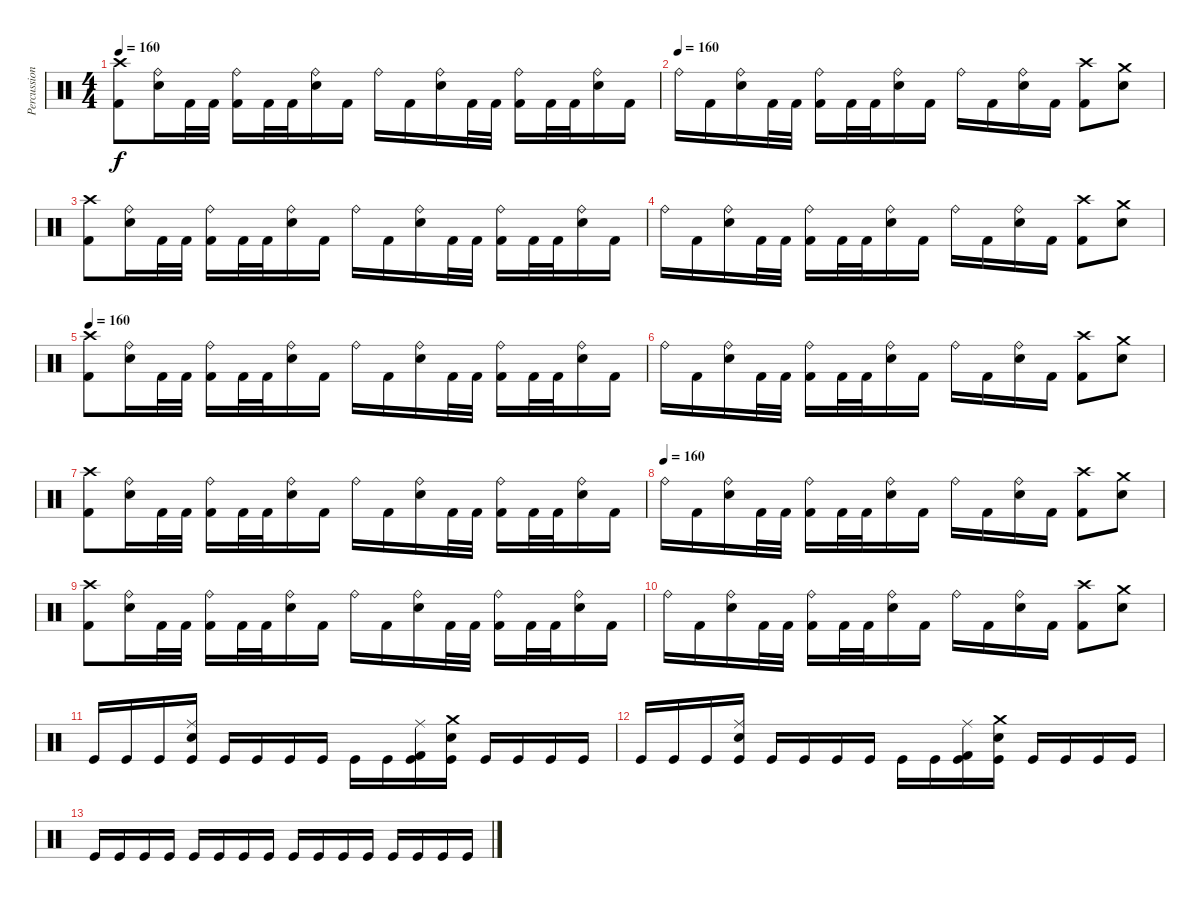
\track ("Percussions" "Percussion") {instrument percussion}
\staff {score}
\articulation defaults
\ts (4 4)
\tempo 160
\clef neutral
\ks c
("Crash high (hit)" "Kick (hit) 2").8{dy f} ("Ride (bell)" "Snare (hit) 2").16 "Kick (hit) 2".32 "Kick (hit) 2".32 ("Ride (bell)" "Kick (hit) 2").16 "Kick (hit) 2".32 "Kick (hit) 2".32 ("Ride (bell)" "Snare (hit) 2").16 "Kick (hit) 2".16 "Ride (bell)".16 "Kick (hit) 2".16 ("Ride (bell)" "Snare (hit) 2").16 "Kick (hit) 2".32 "Kick (hit) 2".32 ("Ride (bell)" "Kick (hit) 2").16 "Kick (hit) 2".32 "Kick (hit) 2".32 ("Ride (bell)" "Snare (hit) 2").16 "Kick (hit) 2".16 |
\tempo (160)
"Ride (bell)".16 "Kick (hit) 2".16 ("Ride (bell)" "Snare (hit) 2").16 "Kick (hit) 2".32 "Kick (hit) 2".32 ("Ride (bell)" "Kick (hit) 2").16 "Kick (hit) 2".32 "Kick (hit) 2".32 ("Ride (bell)" "Snare (hit) 2").16 "Kick (hit) 2".16 "Ride (bell)".16 "Kick (hit) 2".16 ("Ride (bell)" "Snare (hit) 2").16 "Kick (hit) 2".16 ("Crash high (hit)" "Kick (hit) 2").8 ("Crash medium (hit)" "Snare (hit) 2").8 |
("Crash high (hit)" "Kick (hit) 2").8 ("Ride (bell)" "Snare (hit) 2").16 "Kick (hit) 2".32 "Kick (hit) 2".32 ("Ride (bell)" "Kick (hit) 2").16 "Kick (hit) 2".32 "Kick (hit) 2".32 ("Ride (bell)" "Snare (hit) 2").16 "Kick (hit) 2".16 "Ride (bell)".16 "Kick (hit) 2".16 ("Ride (bell)" "Snare (hit) 2").16 "Kick (hit) 2".32 "Kick (hit) 2".32 ("Ride (bell)" "Kick (hit) 2").16 "Kick (hit) 2".32 "Kick (hit) 2".32 ("Ride (bell)" "Snare (hit) 2").16 "Kick (hit) 2".16 |
"Ride (bell)".16 "Kick (hit) 2".16 ("Ride (bell)" "Snare (hit) 2").16 "Kick (hit) 2".32 "Kick (hit) 2".32 ("Ride (bell)" "Kick (hit) 2").16 "Kick (hit) 2".32 "Kick (hit) 2".32 ("Ride (bell)" "Snare (hit) 2").16 "Kick (hit) 2".16 "Ride (bell)".16 "Kick (hit) 2".16 ("Ride (bell)" "Snare (hit) 2").16 "Kick (hit) 2".16 ("Crash high (hit)" "Kick (hit) 2").8 ("Crash medium (hit)" "Snare (hit) 2").8 |
\tempo 160
("Crash high (hit)" "Kick (hit) 2").8 ("Ride (bell)" "Snare (hit) 2").16 "Kick (hit) 2".32 "Kick (hit) 2".32 ("Ride (bell)" "Kick (hit) 2").16 "Kick (hit) 2".32 "Kick (hit) 2".32 ("Ride (bell)" "Snare (hit) 2").16 "Kick (hit) 2".16 "Ride (bell)".16 "Kick (hit) 2".16 ("Ride (bell)" "Snare (hit) 2").16 "Kick (hit) 2".32 "Kick (hit) 2".32 ("Ride (bell)" "Kick (hit) 2").16 "Kick (hit) 2".32 "Kick (hit) 2".32 ("Ride (bell)" "Snare (hit) 2").16 "Kick (hit) 2".16 |
"Ride (bell)".16 "Kick (hit) 2".16 ("Ride (bell)" "Snare (hit) 2").16 "Kick (hit) 2".32 "Kick (hit) 2".32 ("Ride (bell)" "Kick (hit) 2").16 "Kick (hit) 2".32 "Kick (hit) 2".32 ("Ride (bell)" "Snare (hit) 2").16 "Kick (hit) 2".16 "Ride (bell)".16 "Kick (hit) 2".16 ("Ride (bell)" "Snare (hit) 2").16 "Kick (hit) 2".16 ("Crash high (hit)" "Kick (hit) 2").8 ("Crash medium (hit)" "Snare (hit) 2").8 |
("Crash high (hit)" "Kick (hit) 2").8 ("Ride (bell)" "Snare (hit) 2").16 "Kick (hit) 2".32 "Kick (hit) 2".32 ("Ride (bell)" "Kick (hit) 2").16 "Kick (hit) 2".32 "Kick (hit) 2".32 ("Ride (bell)" "Snare (hit) 2").16 "Kick (hit) 2".16 "Ride (bell)".16 "Kick (hit) 2".16 ("Ride (bell)" "Snare (hit) 2").16 "Kick (hit) 2".32 "Kick (hit) 2".32 ("Ride (bell)" "Kick (hit) 2").16 "Kick (hit) 2".32 "Kick (hit) 2".32 ("Ride (bell)" "Snare (hit) 2").16 "Kick (hit) 2".16 |
\tempo (160)
"Ride (bell)".16 "Kick (hit) 2".16 ("Ride (bell)" "Snare (hit) 2").16 "Kick (hit) 2".32 "Kick (hit) 2".32 ("Ride (bell)" "Kick (hit) 2").16 "Kick (hit) 2".32 "Kick (hit) 2".32 ("Ride (bell)" "Snare (hit) 2").16 "Kick (hit) 2".16 "Ride (bell)".16 "Kick (hit) 2".16 ("Ride (bell)" "Snare (hit) 2").16 "Kick (hit) 2".16 ("Crash high (hit)" "Kick (hit) 2").8 ("Crash medium (hit)" "Snare (hit) 2").8 |
("Crash high (hit)" "Kick (hit) 2").8 ("Ride (bell)" "Snare (hit) 2").16 "Kick (hit) 2".32 "Kick (hit) 2".32 ("Ride (bell)" "Kick (hit) 2").16 "Kick (hit) 2".32 "Kick (hit) 2".32 ("Ride (bell)" "Snare (hit) 2").16 "Kick (hit) 2".16 "Ride (bell)".16 "Kick (hit) 2".16 ("Ride (bell)" "Snare (hit) 2").16 "Kick (hit) 2".32 "Kick (hit) 2".32 ("Ride (bell)" "Kick (hit) 2").16 "Kick (hit) 2".32 "Kick (hit) 2".32 ("Ride (bell)" "Snare (hit) 2").16 "Kick (hit) 2".16 |
"Ride (bell)".16 "Kick (hit) 2".16 ("Ride (bell)" "Snare (hit) 2").16 "Kick (hit) 2".32 "Kick (hit) 2".32 ("Ride (bell)" "Kick (hit) 2").16 "Kick (hit) 2".32 "Kick (hit) 2".32 ("Ride (bell)" "Snare (hit) 2").16 "Kick (hit) 2".16 "Ride (bell)".16 "Kick (hit) 2".16 ("Ride (bell)" "Snare (hit) 2").16 "Kick (hit) 2".16 ("Crash high (hit)" "Kick (hit) 2").8 ("Crash medium (hit)" "Snare (hit) 2").8 |
"Kick (hit)".16 "Kick (hit)".16 "Kick (hit)".16 ("Ride (middle)" "Electric Snare (hit)" "Kick (hit)").16 "Kick (hit)".16 "Kick (hit)".16 "Kick (hit)".16 "Kick (hit)".16 "Kick (hit)".16 "Kick (hit)".16 ("Ride (middle)" "Kick (hit) 2" "Kick (hit)").16 ("Crash medium (hit)" "Electric Snare (hit)" "Kick (hit)").16 "Kick (hit)".16 "Kick (hit)".16 "Kick (hit)".16 "Kick (hit)".16 |
"Kick (hit)".16 "Kick (hit)".16 "Kick (hit)".16 ("Ride (middle)" "Electric Snare (hit)" "Kick (hit)").16 "Kick (hit)".16 "Kick (hit)".16 "Kick (hit)".16 "Kick (hit)".16 "Kick (hit)".16 "Kick (hit)".16 ("Ride (middle)" "Kick (hit) 2" "Kick (hit)").16 ("Crash medium (hit)" "Electric Snare (hit)" "Kick (hit)").16 "Kick (hit)".16 "Kick (hit)".16 "Kick (hit)".16 "Kick (hit)".16 |
"Kick (hit)".16 "Kick (hit)".16 "Kick (hit)".16 "Kick (hit)".16 "Kick (hit)".16 "Kick (hit)".16 "Kick (hit)".16 "Kick (hit)".16 "Kick (hit)".16 "Kick (hit)".16 "Kick (hit)".16 "Kick (hit)".16 "Kick (hit)".16 "Kick (hit)".16 "Kick (hit)".16 "Kick (hit)".16
